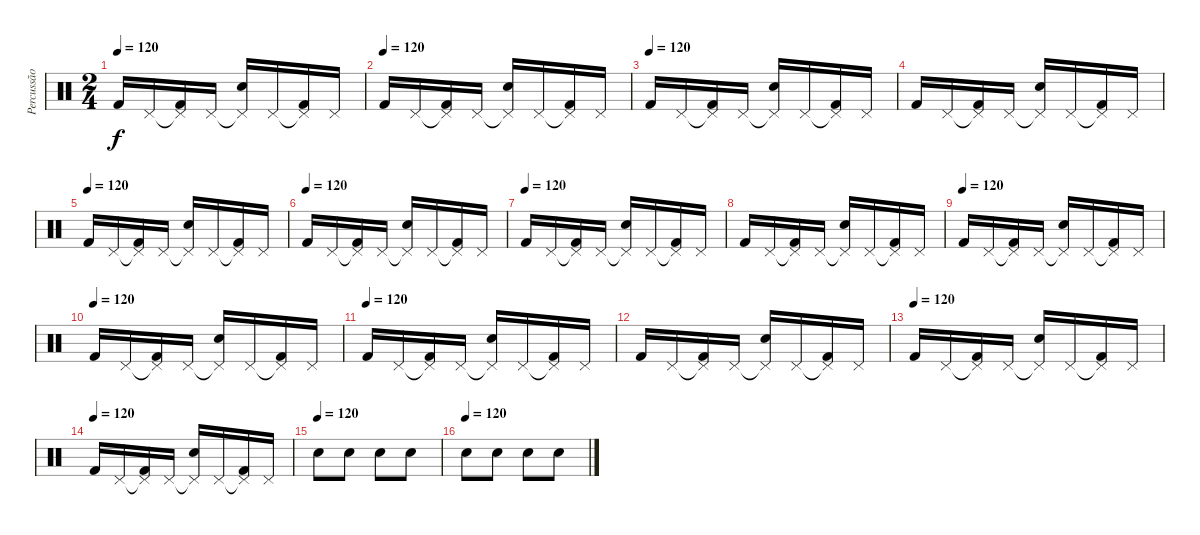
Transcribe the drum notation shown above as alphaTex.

\track ("Percussão" "Percussão") {instrument percussion}
\staff {score}
\articulation defaults
\ts (2 4)
\tempo 120
\clef neutral
\ks c "Kick (hit) 2".16{dy f} "Pedal Hi-Hat (hit)".16
("Pedal Hi-Hat (hit)"{t} "Kick (hit) 2").16 "Pedal Hi-Hat (hit)".16 ("Pedal Hi-Hat (hit)"{t} "Snare (hit) 2").16 "Pedal Hi-Hat (hit)".16 ("Pedal Hi-Hat (hit)"{t} "Kick (hit) 2").16 "Pedal Hi-Hat (hit)".16 |
\tempo (120)
"Kick (hit) 2".16 "Pedal Hi-Hat (hit)".16 ("Pedal Hi-Hat (hit)"{t} "Kick (hit) 2").16 "Pedal Hi-Hat (hit)".16 ("Pedal Hi-Hat (hit)"{t} "Snare (hit) 2").16 "Pedal Hi-Hat (hit)".16 ("Pedal Hi-Hat (hit)"{t} "Kick (hit) 2").16 "Pedal Hi-Hat (hit)".16 |
\tempo (120)
"Kick (hit) 2".16 "Pedal Hi-Hat (hit)".16 ("Pedal Hi-Hat (hit)"{t} "Kick (hit) 2").16 "Pedal Hi-Hat (hit)".16 ("Pedal Hi-Hat (hit)"{t} "Snare (hit) 2").16 "Pedal Hi-Hat (hit)".16 ("Pedal Hi-Hat (hit)"{t} "Kick (hit) 2").16 "Pedal Hi-Hat (hit)".16 |
"Kick (hit) 2".16 "Pedal Hi-Hat (hit)".16 ("Pedal Hi-Hat (hit)"{t} "Kick (hit) 2").16 "Pedal Hi-Hat (hit)".16 ("Pedal Hi-Hat (hit)"{t} "Snare (hit) 2").16 "Pedal Hi-Hat (hit)".16 ("Pedal Hi-Hat (hit)"{t} "Kick (hit) 2").16 "Pedal Hi-Hat (hit)".16 |
\tempo (120)
"Kick (hit) 2".16 "Pedal Hi-Hat (hit)".16 ("Pedal Hi-Hat (hit)"{t} "Kick (hit) 2").16 "Pedal Hi-Hat (hit)".16 ("Pedal Hi-Hat (hit)"{t} "Snare (hit) 2").16 "Pedal Hi-Hat (hit)".16 ("Pedal Hi-Hat (hit)"{t} "Kick (hit) 2").16 "Pedal Hi-Hat (hit)".16 |
\tempo (120)
"Kick (hit) 2".16 "Pedal Hi-Hat (hit)".16 ("Pedal Hi-Hat (hit)"{t} "Kick (hit) 2").16 "Pedal Hi-Hat (hit)".16 ("Pedal Hi-Hat (hit)"{t} "Snare (hit) 2").16 "Pedal Hi-Hat (hit)".16 ("Pedal Hi-Hat (hit)"{t} "Kick (hit) 2").16 "Pedal Hi-Hat (hit)".16 |
\tempo (120)
"Kick (hit) 2".16 "Pedal Hi-Hat (hit)".16 ("Pedal Hi-Hat (hit)"{t} "Kick (hit) 2").16 "Pedal Hi-Hat (hit)".16 ("Pedal Hi-Hat (hit)"{t} "Snare (hit) 2").16 "Pedal Hi-Hat (hit)".16 ("Pedal Hi-Hat (hit)"{t} "Kick (hit) 2").16 "Pedal Hi-Hat (hit)".16 |
"Kick (hit) 2".16 "Pedal Hi-Hat (hit)".16 ("Pedal Hi-Hat (hit)"{t} "Kick (hit) 2").16 "Pedal Hi-Hat (hit)".16 ("Pedal Hi-Hat (hit)"{t} "Snare (hit) 2").16 "Pedal Hi-Hat (hit)".16 ("Pedal Hi-Hat (hit)"{t} "Kick (hit) 2").16 "Pedal Hi-Hat (hit)".16 |
\tempo (120)
"Kick (hit) 2".16 "Pedal Hi-Hat (hit)".16 ("Pedal Hi-Hat (hit)"{t} "Kick (hit) 2").16 "Pedal Hi-Hat (hit)".16 ("Pedal Hi-Hat (hit)"{t} "Snare (hit) 2").16 "Pedal Hi-Hat (hit)".16 ("Pedal Hi-Hat (hit)"{t} "Kick (hit) 2").16 "Pedal Hi-Hat (hit)".16 |
\tempo (120)
"Kick (hit) 2".16 "Pedal Hi-Hat (hit)".16 ("Pedal Hi-Hat (hit)"{t} "Kick (hit) 2").16 "Pedal Hi-Hat (hit)".16 ("Pedal Hi-Hat (hit)"{t} "Snare (hit) 2").16 "Pedal Hi-Hat (hit)".16 ("Pedal Hi-Hat (hit)"{t} "Kick (hit) 2").16 "Pedal Hi-Hat (hit)".16 |
\tempo (120)
"Kick (hit) 2".16 "Pedal Hi-Hat (hit)".16 ("Pedal Hi-Hat (hit)"{t} "Kick (hit) 2").16 "Pedal Hi-Hat (hit)".16 ("Pedal Hi-Hat (hit)"{t} "Snare (hit) 2").16 "Pedal Hi-Hat (hit)".16 ("Pedal Hi-Hat (hit)"{t} "Kick (hit) 2").16 "Pedal Hi-Hat (hit)".16 |
"Kick (hit) 2".16 "Pedal Hi-Hat (hit)".16 ("Pedal Hi-Hat (hit)"{t} "Kick (hit) 2").16 "Pedal Hi-Hat (hit)".16 ("Pedal Hi-Hat (hit)"{t} "Snare (hit) 2").16 "Pedal Hi-Hat (hit)".16 ("Pedal Hi-Hat (hit)"{t} "Kick (hit) 2").16 "Pedal Hi-Hat (hit)".16 |
\tempo (120)
"Kick (hit) 2".16 "Pedal Hi-Hat (hit)".16 ("Pedal Hi-Hat (hit)"{t} "Kick (hit) 2").16 "Pedal Hi-Hat (hit)".16 ("Pedal Hi-Hat (hit)"{t} "Snare (hit) 2").16 "Pedal Hi-Hat (hit)".16 ("Pedal Hi-Hat (hit)"{t} "Kick (hit) 2").16 "Pedal Hi-Hat (hit)".16 |
\tempo (120)
"Kick (hit) 2".16 "Pedal Hi-Hat (hit)".16 ("Pedal Hi-Hat (hit)"{t} "Kick (hit) 2").16 "Pedal Hi-Hat (hit)".16 ("Pedal Hi-Hat (hit)"{t} "Snare (hit) 2").16 "Pedal Hi-Hat (hit)".16 ("Pedal Hi-Hat (hit)"{t} "Kick (hit) 2").16 "Pedal Hi-Hat (hit)".16 |
\tempo (120)
"Snare (hit) 2".8 "Snare (hit) 2".8 "Snare (hit) 2".8 "Snare (hit) 2".8 |
\tempo (120)
"Snare (hit) 2".8 "Snare (hit) 2".8 "Snare (hit) 2".8 "Snare (hit) 2".8
